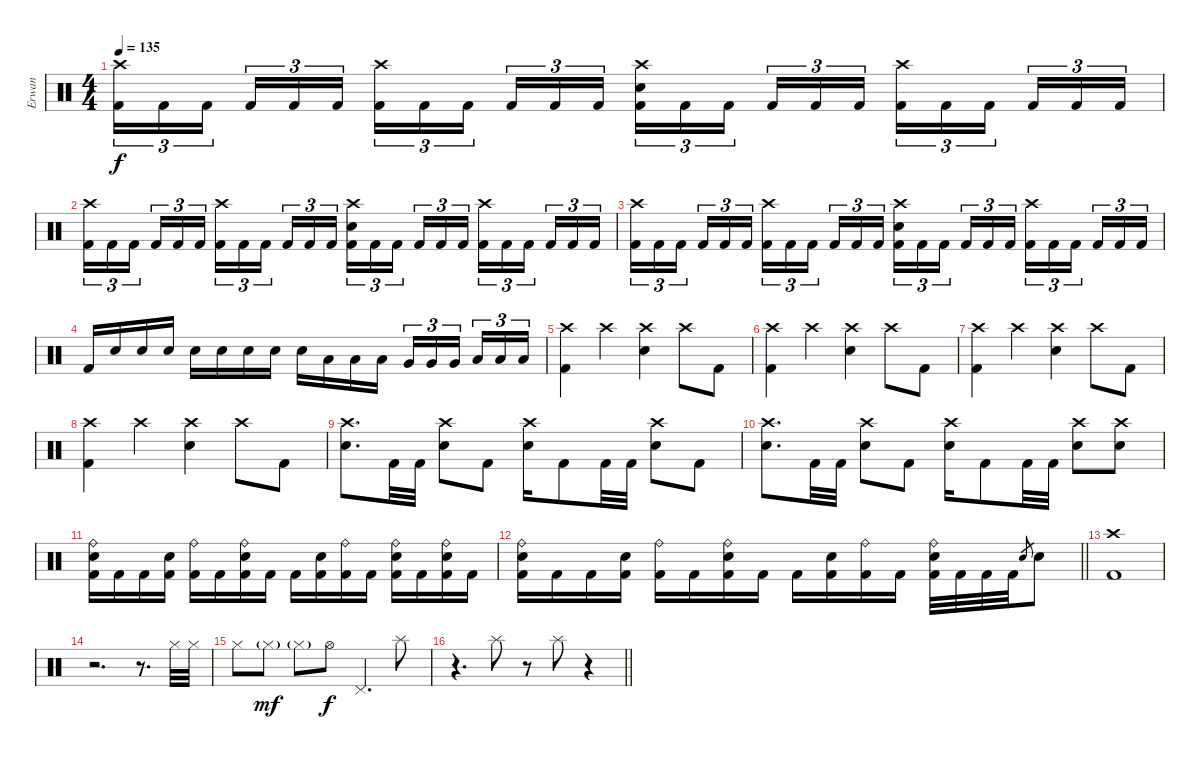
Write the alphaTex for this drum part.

\track ("Erwan" "Erwan") {instrument percussion}
\staff {score}
\articulation defaults
\ts (4 4)
\tempo 135
\clef neutral
\ks c
("Crash high (hit)" "Kick (hit) 2").16{tu (3 2) dy f} "Kick (hit) 2".16{tu (3 2)} "Kick (hit) 2".16{tu (3 2) beam splitsecondary} "Kick (hit) 2".16{tu (3 2)} "Kick (hit) 2".16{tu (3 2)} "Kick (hit) 2".16{tu (3 2)} ("Crash high (hit)" "Kick (hit) 2").16{tu (3 2)} "Kick (hit) 2".16{tu (3 2)} "Kick (hit) 2".16{tu (3 2) beam splitsecondary} "Kick (hit) 2".16{tu (3 2)} "Kick (hit) 2".16{tu (3 2)} "Kick (hit) 2".16{tu (3 2)} ("Crash high (hit)" "Electric Snare (hit)" "Kick (hit) 2").16{tu (3 2)} "Kick (hit) 2".16{tu (3 2)} "Kick (hit) 2".16{tu (3 2) beam splitsecondary} "Kick (hit) 2".16{tu (3 2)} "Kick (hit) 2".16{tu (3 2)} "Kick (hit) 2".16{tu (3 2)} ("Crash high (hit)" "Kick (hit) 2").16{tu (3 2)} "Kick (hit) 2".16{tu (3 2)} "Kick (hit) 2".16{tu (3 2) beam splitsecondary} "Kick (hit) 2".16{tu (3 2)} "Kick (hit) 2".16{tu (3 2)} "Kick (hit) 2".16{tu (3 2)} |
("Crash high (hit)" "Kick (hit) 2").16{tu (3 2)} "Kick (hit) 2".16{tu (3 2)} "Kick (hit) 2".16{tu (3 2) beam splitsecondary} "Kick (hit) 2".16{tu (3 2)} "Kick (hit) 2".16{tu (3 2)} "Kick (hit) 2".16{tu (3 2)} ("Crash high (hit)" "Kick (hit) 2").16{tu (3 2)} "Kick (hit) 2".16{tu (3 2)} "Kick (hit) 2".16{tu (3 2) beam splitsecondary} "Kick (hit) 2".16{tu (3 2)} "Kick (hit) 2".16{tu (3 2)} "Kick (hit) 2".16{tu (3 2)} ("Crash high (hit)" "Electric Snare (hit)" "Kick (hit) 2").16{tu (3 2)} "Kick (hit) 2".16{tu (3 2)} "Kick (hit) 2".16{tu (3 2) beam splitsecondary} "Kick (hit) 2".16{tu (3 2)} "Kick (hit) 2".16{tu (3 2)} "Kick (hit) 2".16{tu (3 2)} ("Crash high (hit)" "Kick (hit) 2").16{tu (3 2)} "Kick (hit) 2".16{tu (3 2)} "Kick (hit) 2".16{tu (3 2) beam splitsecondary} "Kick (hit) 2".16{tu (3 2)} "Kick (hit) 2".16{tu (3 2)} "Kick (hit) 2".16{tu (3 2)} |
("Crash high (hit)" "Kick (hit) 2").16{tu (3 2)} "Kick (hit) 2".16{tu (3 2)} "Kick (hit) 2".16{tu (3 2) beam splitsecondary} "Kick (hit) 2".16{tu (3 2)} "Kick (hit) 2".16{tu (3 2)} "Kick (hit) 2".16{tu (3 2)} ("Crash high (hit)" "Kick (hit) 2").16{tu (3 2)} "Kick (hit) 2".16{tu (3 2)} "Kick (hit) 2".16{tu (3 2) beam splitsecondary} "Kick (hit) 2".16{tu (3 2)} "Kick (hit) 2".16{tu (3 2)} "Kick (hit) 2".16{tu (3 2)} ("Crash high (hit)" "Electric Snare (hit)" "Kick (hit) 2").16{tu (3 2)} "Kick (hit) 2".16{tu (3 2)} "Kick (hit) 2".16{tu (3 2) beam splitsecondary} "Kick (hit) 2".16{tu (3 2)} "Kick (hit) 2".16{tu (3 2)} "Kick (hit) 2".16{tu (3 2)} ("Crash high (hit)" "Kick (hit) 2").16{tu (3 2)} "Kick (hit) 2".16{tu (3 2)} "Kick (hit) 2".16{tu (3 2) beam splitsecondary} "Kick (hit) 2".16{tu (3 2)} "Kick (hit) 2".16{tu (3 2)} "Kick (hit) 2".16{tu (3 2)} |
"Kick (hit) 2".16 "Electric Snare (hit)".16 "Electric Snare (hit)".16 "Electric Snare (hit)".16 "Electric Snare (hit)".16 "Electric Snare (hit)".16 "Electric Snare (hit)".16 "Electric Snare (hit)".16 "Electric Snare (hit)".16 "Low Tom (hit)".16 "Low Tom (hit)".16 "Low Tom (hit)".16 "Very Low Tom (hit)".16{tu (3 2)} "Very Low Tom (hit)".16{tu (3 2)} "Very Low Tom (hit)".16{tu (3 2) beam splitsecondary} "Low Floor Tom (hit)".16{tu (3 2)} "Low Floor Tom (hit)".16{tu (3 2)} "Low Floor Tom (hit)".16{tu (3 2)} |
("Crash high (hit)" "Kick (hit) 2").4 "Crash high (hit)".4 ("Crash high (hit)" "Electric Snare (hit)").4 "Crash high (hit)".8 "Kick (hit) 2".8 |
("Crash high (hit)" "Kick (hit) 2").4 "Crash high (hit)".4 ("Crash high (hit)" "Electric Snare (hit)").4 "Crash high (hit)".8 "Kick (hit) 2".8 |
("Crash high (hit)" "Kick (hit) 2").4 "Crash high (hit)".4 ("Crash high (hit)" "Electric Snare (hit)").4 "Crash high (hit)".8 "Kick (hit) 2".8 |
("Crash high (hit)" "Kick (hit) 2").4 "Crash high (hit)".4 ("Crash high (hit)" "Electric Snare (hit)").4 "Crash high (hit)".8 "Kick (hit) 2".8 |
("Crash high (hit)" "Electric Snare (hit)").8{d} "Kick (hit) 2".32 "Kick (hit) 2".32 ("Crash high (hit)" "Electric Snare (hit)").8 "Kick (hit) 2".8 ("Crash high (hit)" "Electric Snare (hit)").16 "Kick (hit) 2".8 "Kick (hit) 2".32 "Kick (hit) 2".32 ("Crash high (hit)" "Electric Snare (hit)").8 "Kick (hit) 2".8 |
("Crash high (hit)" "Electric Snare (hit)").8{d} "Kick (hit) 2".32 "Kick (hit) 2".32 ("Crash high (hit)" "Electric Snare (hit)").8 "Kick (hit) 2".8 ("Crash high (hit)" "Electric Snare (hit)").16 "Kick (hit) 2".8 "Kick (hit) 2".32 "Kick (hit) 2".32 ("Crash high (hit)" "Electric Snare (hit)").8 ("Crash high (hit)" "Electric Snare (hit)").8 |
("Ride (bell)" "Electric Snare (hit)" "Kick (hit) 2").16 "Kick (hit) 2".16 "Kick (hit) 2".16 ("Electric Snare (hit)" "Kick (hit) 2").16 ("Ride (bell)" "Kick (hit) 2").16 "Kick (hit) 2".16 ("Ride (bell)" "Electric Snare (hit)" "Kick (hit) 2").16 "Kick (hit) 2".16 "Kick (hit) 2".16 ("Electric Snare (hit)" "Kick (hit) 2").16 ("Ride (bell)" "Kick (hit) 2").16 "Kick (hit) 2".16 ("Ride (bell)" "Electric Snare (hit)" "Kick (hit) 2").16 "Kick (hit) 2".16 ("Ride (bell)" "Electric Snare (hit)" "Kick (hit) 2").16 "Kick (hit) 2".16 |
\barLineRight lightlight
("Ride (bell)" "Electric Snare (hit)" "Kick (hit) 2").16 "Kick (hit) 2".16 "Kick (hit) 2".16 ("Electric Snare (hit)" "Kick (hit) 2").16 ("Ride (bell)" "Kick (hit) 2").16 "Kick (hit) 2".16 ("Ride (bell)" "Electric Snare (hit)" "Kick (hit) 2").16 "Kick (hit) 2".16 "Kick (hit) 2".16 ("Electric Snare (hit)" "Kick (hit) 2").16 ("Ride (bell)" "Kick (hit) 2").16 "Kick (hit) 2".16 ("Ride (bell)" "Electric Snare (hit)" "Kick (hit) 2").32 "Kick (hit) 2".32 "Kick (hit) 2".32 "Kick (hit) 2".32 "Electric Snare (hit)".8{gr} "Electric Snare (hit)".8 |
("Crash high (hit)" "Kick (hit) 2").1 |
r.2{d} r.8{d} "Hi-Hat (closed)".32 "Hi-Hat (closed)".32 |
"Hi-Hat (closed)".8 "Hi-Hat (closed)"{g}.8{dy mf} "Hi-Hat (closed)"{g}.8 "Hi-Hat (open)".8{dy f} "Pedal Hi-Hat (hit)".4{d} "Splash (hit)".8 |
\barLineRight lightlight
r.4{d} "Splash (hit)".8 r.8 "Splash (hit)".8 r.4
